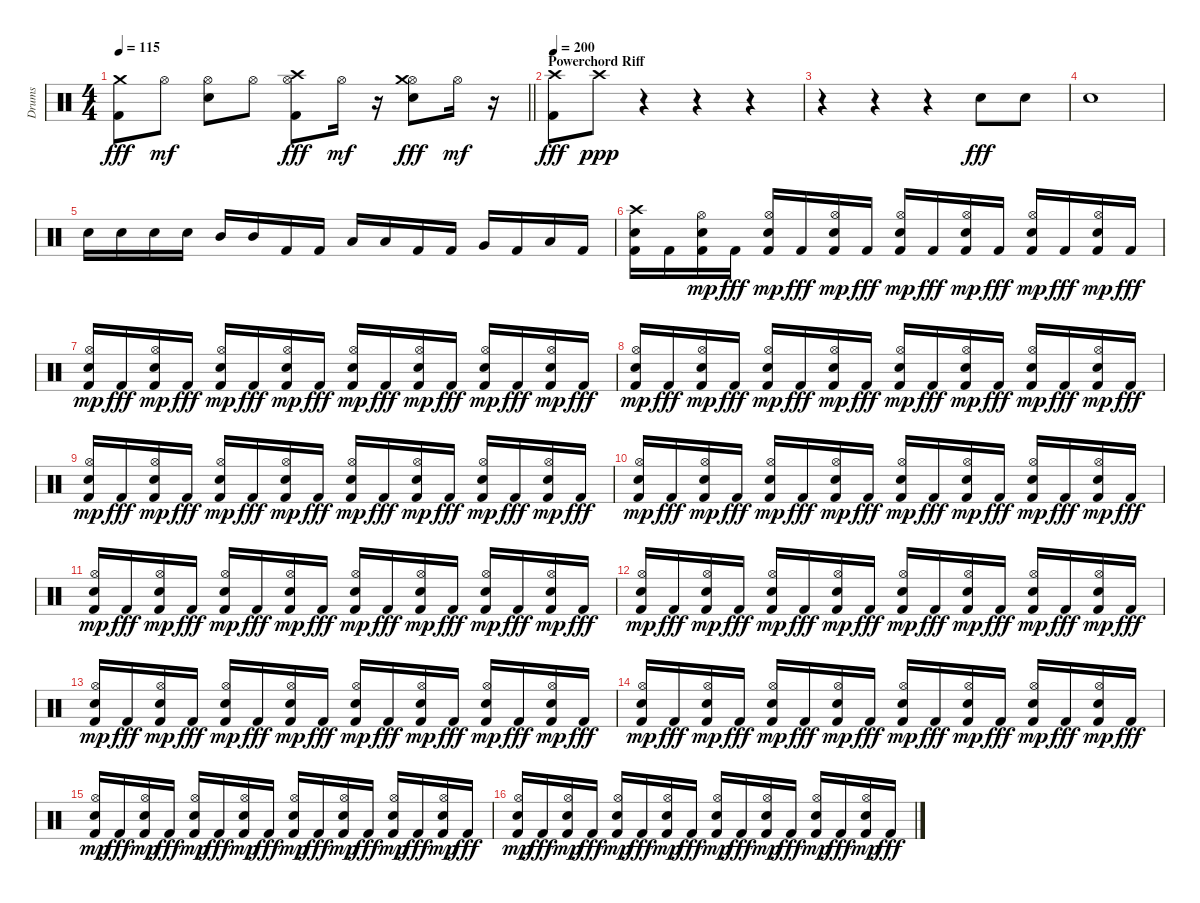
\track ("Drums" "Drums") {instrument percussion}
\staff {score}
\articulation defaults
\ts (4 4)
\tempo 115
\clef neutral
\barLineRight lightlight
\ks c
("Kick (hit) 2" "Crash medium (hit)").8{dy fff} "Hi-Hat (open)".8{dy mf} ("Electric Snare (hit)" "Hi-Hat (open)").8 "Hi-Hat (open)".8 ("Kick (hit) 2" "Hi-Hat (open)" "Crash high (hit)").8{dy fff} "Hi-Hat (open)".16{dy mf} r.16 ("Electric Snare (hit)" "Hi-Hat (open)" "Crash medium (hit)").8{dy fff} "Hi-Hat (open)".16{dy mf} r.16 |
\section ("" "Powerchord Riff")
\tempo 200
("Kick (hit) 2" "Crash high (hit)").8{dy fff} "Crash high (hit)".8{dy ppp} r.4 r.4 r.4 |
r.4 r.4 r.4 "Electric Snare (hit)".8{dy fff} "Electric Snare (hit)".8 |
"Electric Snare (hit)".1 |
"Electric Snare (hit)".16 "Electric Snare (hit)".16 "Electric Snare (hit)".16 "Electric Snare (hit)".16 "Mid Tom (hit)".16 "Mid Tom (hit)".16 "Kick (hit) 2".16 "Kick (hit) 2".16 "Low Tom (hit)".16 "Low Tom (hit)".16 "Kick (hit) 2".16 "Kick (hit) 2".16 "Very Low Tom (hit)".16 "Kick (hit) 2".16 "Low Floor Tom (hit)".16 "Kick (hit) 2".16 |
("Kick (hit) 2" "Electric Snare (hit)" "Crash high (hit)").16 "Kick (hit) 2".16 ("Kick (hit) 2" "Electric Snare (hit)" "Hi-Hat (open)").16{dy mp} "Kick (hit) 2".16{dy fff} ("Kick (hit) 2" "Electric Snare (hit)" "Hi-Hat (open)").16{dy mp} "Kick (hit) 2".16{dy fff} ("Kick (hit) 2" "Electric Snare (hit)" "Hi-Hat (open)").16{dy mp} "Kick (hit) 2".16{dy fff} ("Kick (hit) 2" "Electric Snare (hit)" "Hi-Hat (open)").16{dy mp} "Kick (hit) 2".16{dy fff} ("Kick (hit) 2" "Electric Snare (hit)" "Hi-Hat (open)").16{dy mp} "Kick (hit) 2".16{dy fff} ("Kick (hit) 2" "Electric Snare (hit)" "Hi-Hat (open)").16{dy mp} "Kick (hit) 2".16{dy fff} ("Kick (hit) 2" "Electric Snare (hit)" "Hi-Hat (open)").16{dy mp} "Kick (hit) 2".16{dy fff} |
("Kick (hit) 2" "Electric Snare (hit)" "Hi-Hat (open)").16{dy mp} "Kick (hit) 2".16{dy fff} ("Kick (hit) 2" "Electric Snare (hit)" "Hi-Hat (open)").16{dy mp} "Kick (hit) 2".16{dy fff} ("Kick (hit) 2" "Electric Snare (hit)" "Hi-Hat (open)").16{dy mp} "Kick (hit) 2".16{dy fff} ("Kick (hit) 2" "Electric Snare (hit)" "Hi-Hat (open)").16{dy mp} "Kick (hit) 2".16{dy fff} ("Kick (hit) 2" "Electric Snare (hit)" "Hi-Hat (open)").16{dy mp} "Kick (hit) 2".16{dy fff} ("Kick (hit) 2" "Electric Snare (hit)" "Hi-Hat (open)").16{dy mp} "Kick (hit) 2".16{dy fff} ("Kick (hit) 2" "Electric Snare (hit)" "Hi-Hat (open)").16{dy mp} "Kick (hit) 2".16{dy fff} ("Kick (hit) 2" "Electric Snare (hit)" "Hi-Hat (open)").16{dy mp} "Kick (hit) 2".16{dy fff} |
("Kick (hit) 2" "Electric Snare (hit)" "Hi-Hat (open)").16{dy mp} "Kick (hit) 2".16{dy fff} ("Kick (hit) 2" "Electric Snare (hit)" "Hi-Hat (open)").16{dy mp} "Kick (hit) 2".16{dy fff} ("Kick (hit) 2" "Electric Snare (hit)" "Hi-Hat (open)").16{dy mp} "Kick (hit) 2".16{dy fff} ("Kick (hit) 2" "Electric Snare (hit)" "Hi-Hat (open)").16{dy mp} "Kick (hit) 2".16{dy fff} ("Kick (hit) 2" "Electric Snare (hit)" "Hi-Hat (open)").16{dy mp} "Kick (hit) 2".16{dy fff} ("Kick (hit) 2" "Electric Snare (hit)" "Hi-Hat (open)").16{dy mp} "Kick (hit) 2".16{dy fff} ("Kick (hit) 2" "Electric Snare (hit)" "Hi-Hat (open)").16{dy mp} "Kick (hit) 2".16{dy fff} ("Kick (hit) 2" "Electric Snare (hit)" "Hi-Hat (open)").16{dy mp} "Kick (hit) 2".16{dy fff} |
("Kick (hit) 2" "Electric Snare (hit)" "Hi-Hat (open)").16{dy mp} "Kick (hit) 2".16{dy fff} ("Kick (hit) 2" "Electric Snare (hit)" "Hi-Hat (open)").16{dy mp} "Kick (hit) 2".16{dy fff} ("Kick (hit) 2" "Electric Snare (hit)" "Hi-Hat (open)").16{dy mp} "Kick (hit) 2".16{dy fff} ("Kick (hit) 2" "Electric Snare (hit)" "Hi-Hat (open)").16{dy mp} "Kick (hit) 2".16{dy fff} ("Kick (hit) 2" "Electric Snare (hit)" "Hi-Hat (open)").16{dy mp} "Kick (hit) 2".16{dy fff} ("Kick (hit) 2" "Electric Snare (hit)" "Hi-Hat (open)").16{dy mp} "Kick (hit) 2".16{dy fff} ("Kick (hit) 2" "Electric Snare (hit)" "Hi-Hat (open)").16{dy mp} "Kick (hit) 2".16{dy fff} ("Kick (hit) 2" "Electric Snare (hit)" "Hi-Hat (open)").16{dy mp} "Kick (hit) 2".16{dy fff} |
("Kick (hit) 2" "Electric Snare (hit)" "Hi-Hat (open)").16{dy mp} "Kick (hit) 2".16{dy fff} ("Kick (hit) 2" "Electric Snare (hit)" "Hi-Hat (open)").16{dy mp} "Kick (hit) 2".16{dy fff} ("Kick (hit) 2" "Electric Snare (hit)" "Hi-Hat (open)").16{dy mp} "Kick (hit) 2".16{dy fff} ("Kick (hit) 2" "Electric Snare (hit)" "Hi-Hat (open)").16{dy mp} "Kick (hit) 2".16{dy fff} ("Kick (hit) 2" "Electric Snare (hit)" "Hi-Hat (open)").16{dy mp} "Kick (hit) 2".16{dy fff} ("Kick (hit) 2" "Electric Snare (hit)" "Hi-Hat (open)").16{dy mp} "Kick (hit) 2".16{dy fff} ("Kick (hit) 2" "Electric Snare (hit)" "Hi-Hat (open)").16{dy mp} "Kick (hit) 2".16{dy fff} ("Kick (hit) 2" "Electric Snare (hit)" "Hi-Hat (open)").16{dy mp} "Kick (hit) 2".16{dy fff} |
("Kick (hit) 2" "Electric Snare (hit)" "Hi-Hat (open)").16{dy mp} "Kick (hit) 2".16{dy fff} ("Kick (hit) 2" "Electric Snare (hit)" "Hi-Hat (open)").16{dy mp} "Kick (hit) 2".16{dy fff} ("Kick (hit) 2" "Electric Snare (hit)" "Hi-Hat (open)").16{dy mp} "Kick (hit) 2".16{dy fff} ("Kick (hit) 2" "Electric Snare (hit)" "Hi-Hat (open)").16{dy mp} "Kick (hit) 2".16{dy fff} ("Kick (hit) 2" "Electric Snare (hit)" "Hi-Hat (open)").16{dy mp} "Kick (hit) 2".16{dy fff} ("Kick (hit) 2" "Electric Snare (hit)" "Hi-Hat (open)").16{dy mp} "Kick (hit) 2".16{dy fff} ("Kick (hit) 2" "Electric Snare (hit)" "Hi-Hat (open)").16{dy mp} "Kick (hit) 2".16{dy fff} ("Kick (hit) 2" "Electric Snare (hit)" "Hi-Hat (open)").16{dy mp} "Kick (hit) 2".16{dy fff} |
("Kick (hit) 2" "Electric Snare (hit)" "Hi-Hat (open)").16{dy mp} "Kick (hit) 2".16{dy fff} ("Kick (hit) 2" "Electric Snare (hit)" "Hi-Hat (open)").16{dy mp} "Kick (hit) 2".16{dy fff} ("Kick (hit) 2" "Electric Snare (hit)" "Hi-Hat (open)").16{dy mp} "Kick (hit) 2".16{dy fff} ("Kick (hit) 2" "Electric Snare (hit)" "Hi-Hat (open)").16{dy mp} "Kick (hit) 2".16{dy fff} ("Kick (hit) 2" "Electric Snare (hit)" "Hi-Hat (open)").16{dy mp} "Kick (hit) 2".16{dy fff} ("Kick (hit) 2" "Electric Snare (hit)" "Hi-Hat (open)").16{dy mp} "Kick (hit) 2".16{dy fff} ("Kick (hit) 2" "Electric Snare (hit)" "Hi-Hat (open)").16{dy mp} "Kick (hit) 2".16{dy fff} ("Kick (hit) 2" "Electric Snare (hit)" "Hi-Hat (open)").16{dy mp} "Kick (hit) 2".16{dy fff} |
("Kick (hit) 2" "Electric Snare (hit)" "Hi-Hat (open)").16{dy mp} "Kick (hit) 2".16{dy fff} ("Kick (hit) 2" "Electric Snare (hit)" "Hi-Hat (open)").16{dy mp} "Kick (hit) 2".16{dy fff} ("Kick (hit) 2" "Electric Snare (hit)" "Hi-Hat (open)").16{dy mp} "Kick (hit) 2".16{dy fff} ("Kick (hit) 2" "Electric Snare (hit)" "Hi-Hat (open)").16{dy mp} "Kick (hit) 2".16{dy fff} ("Kick (hit) 2" "Electric Snare (hit)" "Hi-Hat (open)").16{dy mp} "Kick (hit) 2".16{dy fff} ("Kick (hit) 2" "Electric Snare (hit)" "Hi-Hat (open)").16{dy mp} "Kick (hit) 2".16{dy fff} ("Kick (hit) 2" "Electric Snare (hit)" "Hi-Hat (open)").16{dy mp} "Kick (hit) 2".16{dy fff} ("Kick (hit) 2" "Electric Snare (hit)" "Hi-Hat (open)").16{dy mp} "Kick (hit) 2".16{dy fff} |
("Kick (hit) 2" "Electric Snare (hit)" "Hi-Hat (open)").16{dy mp} "Kick (hit) 2".16{dy fff} ("Kick (hit) 2" "Electric Snare (hit)" "Hi-Hat (open)").16{dy mp} "Kick (hit) 2".16{dy fff} ("Kick (hit) 2" "Electric Snare (hit)" "Hi-Hat (open)").16{dy mp} "Kick (hit) 2".16{dy fff} ("Kick (hit) 2" "Electric Snare (hit)" "Hi-Hat (open)").16{dy mp} "Kick (hit) 2".16{dy fff} ("Kick (hit) 2" "Electric Snare (hit)" "Hi-Hat (open)").16{dy mp} "Kick (hit) 2".16{dy fff} ("Kick (hit) 2" "Electric Snare (hit)" "Hi-Hat (open)").16{dy mp} "Kick (hit) 2".16{dy fff} ("Kick (hit) 2" "Electric Snare (hit)" "Hi-Hat (open)").16{dy mp} "Kick (hit) 2".16{dy fff} ("Kick (hit) 2" "Electric Snare (hit)" "Hi-Hat (open)").16{dy mp} "Kick (hit) 2".16{dy fff} |
("Kick (hit) 2" "Electric Snare (hit)" "Hi-Hat (open)").16{dy mp} "Kick (hit) 2".16{dy fff} ("Kick (hit) 2" "Electric Snare (hit)" "Hi-Hat (open)").16{dy mp} "Kick (hit) 2".16{dy fff} ("Kick (hit) 2" "Electric Snare (hit)" "Hi-Hat (open)").16{dy mp} "Kick (hit) 2".16{dy fff} ("Kick (hit) 2" "Electric Snare (hit)" "Hi-Hat (open)").16{dy mp} "Kick (hit) 2".16{dy fff} ("Kick (hit) 2" "Electric Snare (hit)" "Hi-Hat (open)").16{dy mp} "Kick (hit) 2".16{dy fff} ("Kick (hit) 2" "Electric Snare (hit)" "Hi-Hat (open)").16{dy mp} "Kick (hit) 2".16{dy fff} ("Kick (hit) 2" "Electric Snare (hit)" "Hi-Hat (open)").16{dy mp} "Kick (hit) 2".16{dy fff} ("Kick (hit) 2" "Electric Snare (hit)" "Hi-Hat (open)").16{dy mp} "Kick (hit) 2".16{dy fff} |
("Kick (hit) 2" "Electric Snare (hit)" "Hi-Hat (open)").16{dy mp} "Kick (hit) 2".16{dy fff} ("Kick (hit) 2" "Electric Snare (hit)" "Hi-Hat (open)").16{dy mp} "Kick (hit) 2".16{dy fff} ("Kick (hit) 2" "Electric Snare (hit)" "Hi-Hat (open)").16{dy mp} "Kick (hit) 2".16{dy fff} ("Kick (hit) 2" "Electric Snare (hit)" "Hi-Hat (open)").16{dy mp} "Kick (hit) 2".16{dy fff} ("Kick (hit) 2" "Electric Snare (hit)" "Hi-Hat (open)").16{dy mp} "Kick (hit) 2".16{dy fff} ("Kick (hit) 2" "Electric Snare (hit)" "Hi-Hat (open)").16{dy mp} "Kick (hit) 2".16{dy fff} ("Kick (hit) 2" "Electric Snare (hit)" "Hi-Hat (open)").16{dy mp} "Kick (hit) 2".16{dy fff} ("Kick (hit) 2" "Electric Snare (hit)" "Hi-Hat (open)").16{dy mp} "Kick (hit) 2".16{dy fff}
